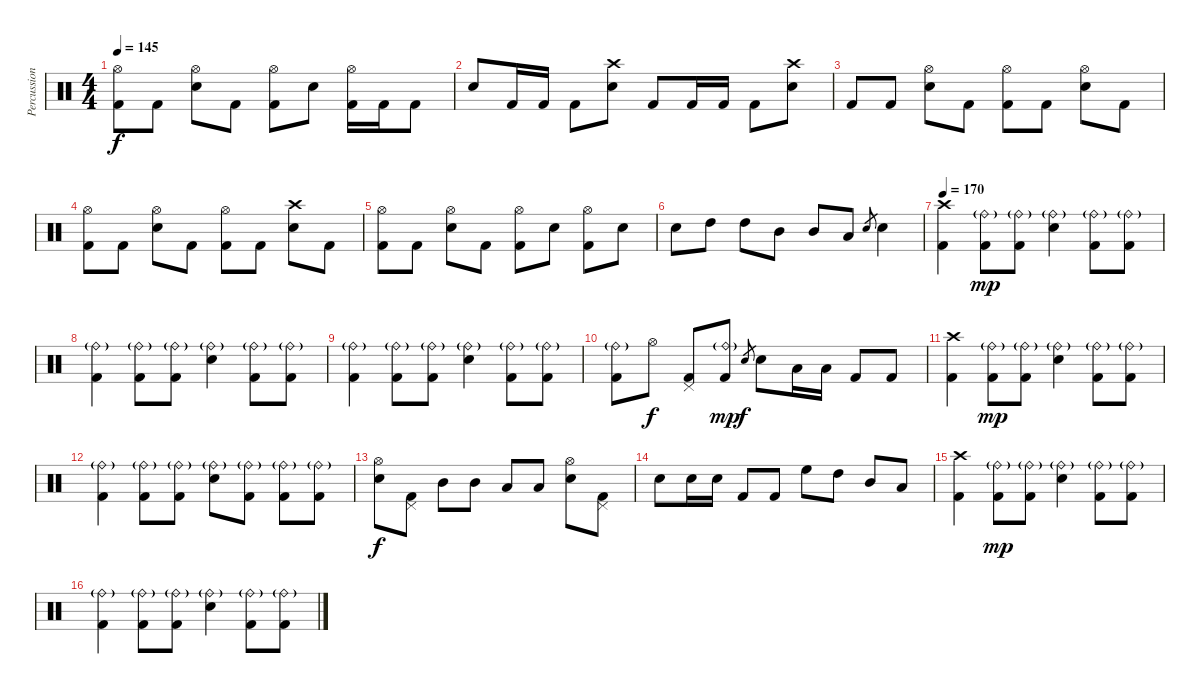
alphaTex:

\track ("Percussion" "Percussion") {instrument percussion}
\staff {score}
\articulation defaults
\ts (4 4)
\tempo 145
\clef neutral
\ks c
("Hi-Hat (open)" "Kick (hit) 2").8{dy f} "Kick (hit) 2".8 ("Hi-Hat (open)" "Electric Snare (hit)").8 "Kick (hit) 2".8 ("Hi-Hat (open)" "Kick (hit) 2").8 "Electric Snare (hit)".8 ("Hi-Hat (open)" "Kick (hit) 2").16 "Kick (hit) 2".16 "Kick (hit) 2".8 |
"Electric Snare (hit)".8 "Kick (hit) 2".16 "Kick (hit) 2".16 "Kick (hit) 2".8 ("Crash high (hit)" "Electric Snare (hit)").8 "Kick (hit) 2".8 "Kick (hit) 2".16 "Kick (hit) 2".16 "Kick (hit) 2".8 ("Crash high (hit)" "Electric Snare (hit)").8 |
"Kick (hit) 2".8 "Kick (hit) 2".8 ("Hi-Hat (open)" "Electric Snare (hit)").8 "Kick (hit) 2".8 ("Hi-Hat (open)" "Kick (hit) 2").8 "Kick (hit) 2".8 ("Hi-Hat (open)" "Electric Snare (hit)").8 "Kick (hit) 2".8 |
("Hi-Hat (open)" "Kick (hit) 2").8 "Kick (hit) 2".8 ("Hi-Hat (open)" "Electric Snare (hit)").8 "Kick (hit) 2".8 ("Hi-Hat (open)" "Kick (hit) 2").8 "Kick (hit) 2".8 ("Crash high (hit)" "Electric Snare (hit)").8 "Kick (hit) 2".8 |
("Hi-Hat (open)" "Kick (hit) 2").8 "Kick (hit) 2".8 ("Hi-Hat (open)" "Electric Snare (hit)").8 "Kick (hit) 2".8 ("Hi-Hat (open)" "Kick (hit) 2").8 "Electric Snare (hit)".8 ("Hi-Hat (open)" "Kick (hit) 2").8 "Electric Snare (hit)".8 |
"Electric Snare (hit)".8 "High Tom (hit)".8 "High Tom (hit)".8 "Mid Tom (hit)".8 "Mid Tom (hit)".8 "Low Tom (hit)".8 "Electric Snare (hit)".8{gr} "Electric Snare (hit)".4 |
\tempo 170
("Crash high (hit)" "Kick (hit) 2").4 ("Ride (bell)"{g} "Kick (hit) 2").8{dy mp} ("Ride (bell)"{g} "Kick (hit) 2").8 ("Ride (bell)"{g} "Electric Snare (hit)").4 ("Ride (bell)"{g} "Kick (hit) 2").8 ("Ride (bell)"{g} "Kick (hit) 2").8 |
("Ride (bell)"{g} "Kick (hit) 2").4 ("Ride (bell)"{g} "Kick (hit) 2").8 ("Ride (bell)"{g} "Kick (hit) 2").8 ("Ride (bell)"{g} "Electric Snare (hit)").4 ("Ride (bell)"{g} "Kick (hit) 2").8 ("Ride (bell)"{g} "Kick (hit) 2").8 |
("Ride (bell)"{g} "Kick (hit) 2").4 ("Ride (bell)"{g} "Kick (hit) 2").8 ("Ride (bell)"{g} "Kick (hit) 2").8 ("Ride (bell)"{g} "Electric Snare (hit)").4 ("Ride (bell)"{g} "Kick (hit) 2").8 ("Ride (bell)"{g} "Kick (hit) 2").8 |
("Ride (bell)"{g} "Kick (hit) 2").8 "Hi-Hat (open)".8{dy f} ("Pedal Hi-Hat (hit)" "Kick (hit) 2").8 ("Ride (bell)"{g} "Kick (hit) 2").8{dy mp} "Electric Snare (hit)".8{gr dy f} "Electric Snare (hit)".8 "Low Tom (hit)".16 "Low Tom (hit)".16 "Kick (hit) 2".8 "Kick (hit) 2".8 |
("Crash high (hit)" "Kick (hit) 2").4 ("Ride (bell)"{g} "Kick (hit) 2").8{dy mp} ("Ride (bell)"{g} "Kick (hit) 2").8 ("Ride (bell)"{g} "Electric Snare (hit)").4 ("Ride (bell)"{g} "Kick (hit) 2").8 ("Ride (bell)"{g} "Kick (hit) 2").8 |
("Ride (bell)"{g} "Kick (hit) 2").4 ("Ride (bell)"{g} "Kick (hit) 2").8 ("Ride (bell)"{g} "Kick (hit) 2").8 ("Ride (bell)"{g} "Electric Snare (hit)").8 ("Ride (bell)"{g} "Kick (hit) 2").8 ("Ride (bell)"{g} "Kick (hit) 2").8 ("Ride (bell)"{g} "Kick (hit) 2").8 |
("Hi-Hat (open)" "Electric Snare (hit)").8{dy f} ("Pedal Hi-Hat (hit)" "Kick (hit) 2").8 "Mid Tom (hit)".8 "Mid Tom (hit)".8 "Low Tom (hit)".8 "Low Tom (hit)".8 ("Hi-Hat (open)" "Electric Snare (hit)").8 ("Pedal Hi-Hat (hit)" "Kick (hit) 2").8 |
"Electric Snare (hit)".8 "Electric Snare (hit)".16 "Electric Snare (hit)".16 "Kick (hit) 2".8 "Kick (hit) 2".8 "High Floor Tom (hit)".8 "High Tom (hit)".8 "Mid Tom (hit)".8 "Low Tom (hit)".8 |
("Crash high (hit)" "Kick (hit) 2").4 ("Ride (bell)"{g} "Kick (hit) 2").8{dy mp} ("Ride (bell)"{g} "Kick (hit) 2").8 ("Ride (bell)"{g} "Electric Snare (hit)").4 ("Ride (bell)"{g} "Kick (hit) 2").8 ("Ride (bell)"{g} "Kick (hit) 2").8 |
("Ride (bell)"{g} "Kick (hit) 2").4 ("Ride (bell)"{g} "Kick (hit) 2").8 ("Ride (bell)"{g} "Kick (hit) 2").8 ("Ride (bell)"{g} "Electric Snare (hit)").4 ("Ride (bell)"{g} "Kick (hit) 2").8 ("Ride (bell)"{g} "Kick (hit) 2").8
